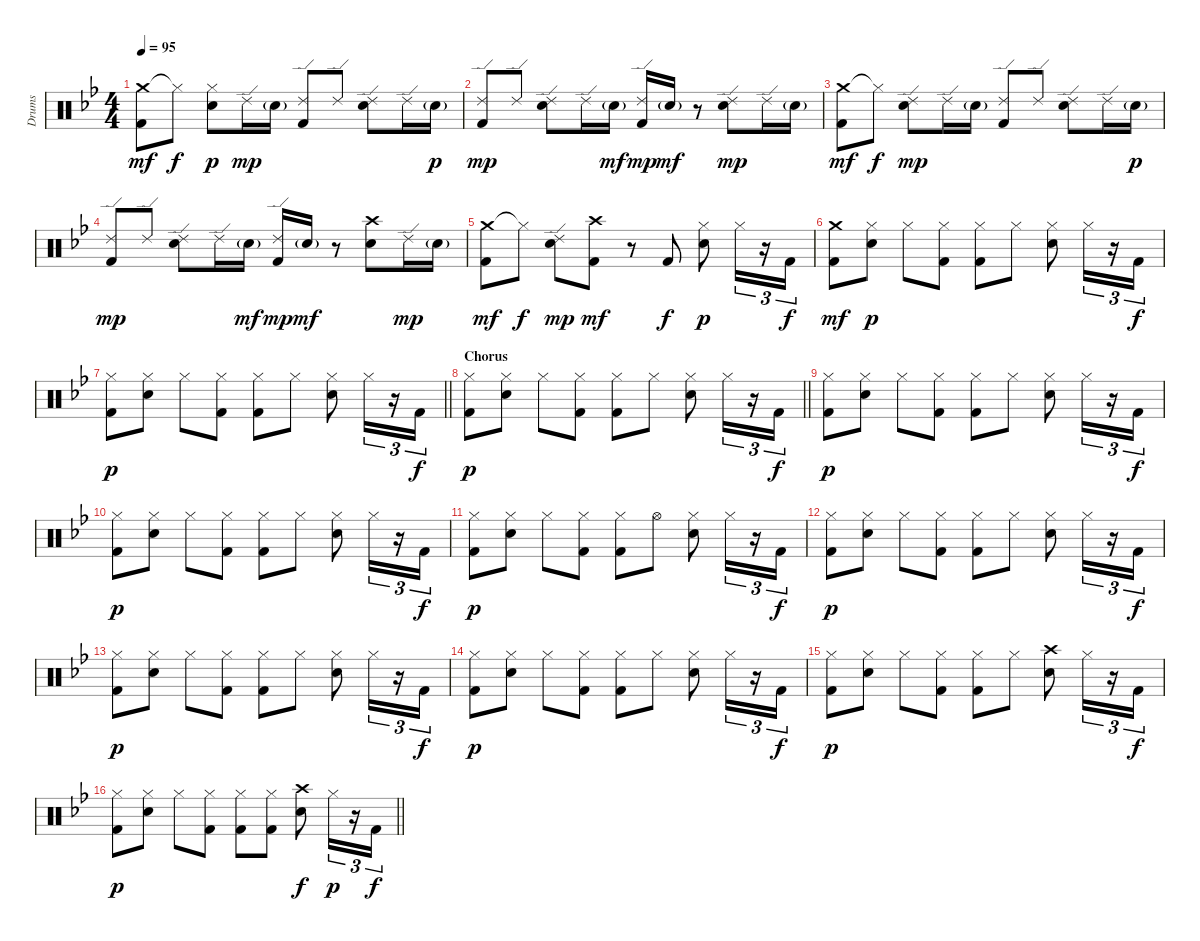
\track ("Drums" "Drums") {instrument percussion}
\staff {score}
\articulation defaults
\ts (4 4)
\tempo 95
\clef neutral
\ks gminor
("Crash medium (hit)" "Kick (hit) 2").8{dy mf} "Hi-Hat (closed)"{t}.8{dy f} ("Hi-Hat (closed)" "Electric Snare (hit)").8{dy p} "Ride (edge) 2".16{dy mp} "Electric Snare (hit)"{g}.16 ("Ride (edge) 2" "Kick (hit) 2").8 "Ride (edge) 2".8 ("Ride (edge) 2" "Electric Snare (hit)").8 "Ride (edge) 2".16 "Electric Snare (hit)"{g}.16{dy p} |
("Ride (edge) 2" "Kick (hit) 2").8{dy mp} "Ride (edge) 2".8 ("Ride (edge) 2" "Electric Snare (hit)").8 "Ride (edge) 2".16 "Electric Snare (hit)"{g}.16{dy mf} ("Ride (edge) 2" "Kick (hit) 2").16{dy mp} "Electric Snare (hit)"{g}.16{dy mf} r.8 ("Ride (edge) 2" "Electric Snare (hit)").8{dy mp} "Ride (edge) 2".16 "Electric Snare (hit)"{g}.16 |
("Crash medium (hit)" "Kick (hit) 2").8{dy mf} "Hi-Hat (closed)"{t}.8{dy f} ("Ride (edge) 2" "Electric Snare (hit)").8{dy mp} "Ride (edge) 2".16 "Electric Snare (hit)"{g}.16 ("Ride (edge) 2" "Kick (hit) 2").8 "Ride (edge) 2".8 ("Ride (edge) 2" "Electric Snare (hit)").8 "Ride (edge) 2".16 "Electric Snare (hit)"{g}.16{dy p} |
("Ride (edge) 2" "Kick (hit) 2").8{dy mp} "Ride (edge) 2".8 ("Ride (edge) 2" "Electric Snare (hit)").8 "Ride (edge) 2".16 "Electric Snare (hit)"{g}.16{dy mf} ("Ride (edge) 2" "Kick (hit) 2").16{dy mp} "Electric Snare (hit)"{g}.16{dy mf} r.8 ("Crash high (hit)" "Electric Snare (hit)").8 "Ride (edge) 2".16{dy mp} "Electric Snare (hit)"{g}.16 |
("Crash medium (hit)" "Kick (hit) 2").8{dy mf} "Hi-Hat (closed)"{t}.8{dy f} ("Ride (edge) 2" "Electric Snare (hit)").8{dy mp} ("Crash high (hit)" "Kick (hit) 2").8{dy mf} r.8 "Kick (hit) 2".8{dy f} ("Hi-Hat (closed)" "Electric Snare (hit)").8{dy p} "Hi-Hat (closed)".16{tu (3 2)} r.16{tu (3 2)} "Kick (hit) 2".16{tu (3 2) dy f} |
("Crash medium (hit)" "Kick (hit) 2").8{dy mf} ("Hi-Hat (closed)" "Electric Snare (hit)").8{dy p} "Hi-Hat (closed)".8 ("Hi-Hat (closed)" "Kick (hit) 2").8 ("Hi-Hat (closed)" "Kick (hit) 2").8 "Hi-Hat (closed)".8 ("Hi-Hat (closed)" "Electric Snare (hit)").8 "Hi-Hat (closed)".16{tu (3 2)} r.16{tu (3 2)} "Kick (hit) 2".16{tu (3 2) dy f} |
\barLineRight lightlight
("Hi-Hat (closed)" "Kick (hit) 2").8{dy p} ("Hi-Hat (closed)" "Electric Snare (hit)").8 "Hi-Hat (closed)".8 ("Hi-Hat (closed)" "Kick (hit) 2").8 ("Hi-Hat (closed)" "Kick (hit) 2").8 "Hi-Hat (closed)".8 ("Hi-Hat (closed)" "Electric Snare (hit)").8 "Hi-Hat (closed)".16{tu (3 2)} r.16{tu (3 2)} "Kick (hit) 2".16{tu (3 2) dy f} |
\section ("" "Chorus")
\barLineRight lightlight
("Hi-Hat (closed)" "Kick (hit) 2").8{dy p} ("Hi-Hat (closed)" "Electric Snare (hit)").8 "Hi-Hat (closed)".8 ("Hi-Hat (closed)" "Kick (hit) 2").8 ("Hi-Hat (closed)" "Kick (hit) 2").8 "Hi-Hat (closed)".8 ("Hi-Hat (closed)" "Electric Snare (hit)").8 "Hi-Hat (closed)".16{tu (3 2)} r.16{tu (3 2)} "Kick (hit) 2".16{tu (3 2) dy f} |
("Hi-Hat (closed)" "Kick (hit) 2").8{dy p} ("Hi-Hat (closed)" "Electric Snare (hit)").8 "Hi-Hat (closed)".8 ("Hi-Hat (closed)" "Kick (hit) 2").8 ("Hi-Hat (closed)" "Kick (hit) 2").8 "Hi-Hat (closed)".8 ("Hi-Hat (closed)" "Electric Snare (hit)").8 "Hi-Hat (closed)".16{tu (3 2)} r.16{tu (3 2)} "Kick (hit) 2".16{tu (3 2) dy f} |
("Hi-Hat (closed)" "Kick (hit) 2").8{dy p} ("Hi-Hat (closed)" "Electric Snare (hit)").8 "Hi-Hat (closed)".8 ("Hi-Hat (closed)" "Kick (hit) 2").8 ("Hi-Hat (closed)" "Kick (hit) 2").8 "Hi-Hat (closed)".8 ("Hi-Hat (closed)" "Electric Snare (hit)").8 "Hi-Hat (closed)".16{tu (3 2)} r.16{tu (3 2)} "Kick (hit) 2".16{tu (3 2) dy f} |
("Hi-Hat (closed)" "Kick (hit) 2").8{dy p} ("Hi-Hat (closed)" "Electric Snare (hit)").8 "Hi-Hat (closed)".8 ("Hi-Hat (closed)" "Kick (hit) 2").8 ("Hi-Hat (closed)" "Kick (hit) 2").8 "Hi-Hat (open)".8 ("Hi-Hat (closed)" "Electric Snare (hit)").8 "Hi-Hat (closed)".16{tu (3 2)} r.16{tu (3 2)} "Kick (hit) 2".16{tu (3 2) dy f} |
("Hi-Hat (closed)" "Kick (hit) 2").8{dy p} ("Hi-Hat (closed)" "Electric Snare (hit)").8 "Hi-Hat (closed)".8 ("Hi-Hat (closed)" "Kick (hit) 2").8 ("Hi-Hat (closed)" "Kick (hit) 2").8 "Hi-Hat (closed)".8 ("Hi-Hat (closed)" "Electric Snare (hit)").8 "Hi-Hat (closed)".16{tu (3 2)} r.16{tu (3 2)} "Kick (hit) 2".16{tu (3 2) dy f} |
("Hi-Hat (closed)" "Kick (hit) 2").8{dy p} ("Hi-Hat (closed)" "Electric Snare (hit)").8 "Hi-Hat (closed)".8 ("Hi-Hat (closed)" "Kick (hit) 2").8 ("Hi-Hat (closed)" "Kick (hit) 2").8 "Hi-Hat (closed)".8 ("Hi-Hat (closed)" "Electric Snare (hit)").8 "Hi-Hat (closed)".16{tu (3 2)} r.16{tu (3 2)} "Kick (hit) 2".16{tu (3 2) dy f} |
("Hi-Hat (closed)" "Kick (hit) 2").8{dy p} ("Hi-Hat (closed)" "Electric Snare (hit)").8 "Hi-Hat (closed)".8 ("Hi-Hat (closed)" "Kick (hit) 2").8 ("Hi-Hat (closed)" "Kick (hit) 2").8 "Hi-Hat (closed)".8 ("Hi-Hat (closed)" "Electric Snare (hit)").8 "Hi-Hat (closed)".16{tu (3 2)} r.16{tu (3 2)} "Kick (hit) 2".16{tu (3 2) dy f} |
("Hi-Hat (closed)" "Kick (hit) 2").8{dy p} ("Hi-Hat (closed)" "Electric Snare (hit)").8 "Hi-Hat (closed)".8 ("Hi-Hat (closed)" "Kick (hit) 2").8 ("Hi-Hat (closed)" "Kick (hit) 2").8 "Hi-Hat (closed)".8 ("Crash high (hit)" "Electric Snare (hit)").8 "Hi-Hat (closed)".16{tu (3 2)} r.16{tu (3 2)} "Kick (hit) 2".16{tu (3 2) dy f} |
\barLineRight lightlight
("Hi-Hat (closed)" "Kick (hit) 2").8{dy p} ("Hi-Hat (closed)" "Electric Snare (hit)").8 "Hi-Hat (closed)".8 ("Hi-Hat (closed)" "Kick (hit) 2").8 ("Hi-Hat (closed)" "Kick (hit) 2").8 ("Hi-Hat (closed)" "Kick (hit) 2").8 ("Crash high (hit)" "Electric Snare (hit)").8{dy f} "Hi-Hat (closed)".16{tu (3 2) dy p} r.16{tu (3 2)} "Kick (hit) 2".16{tu (3 2) dy f}
